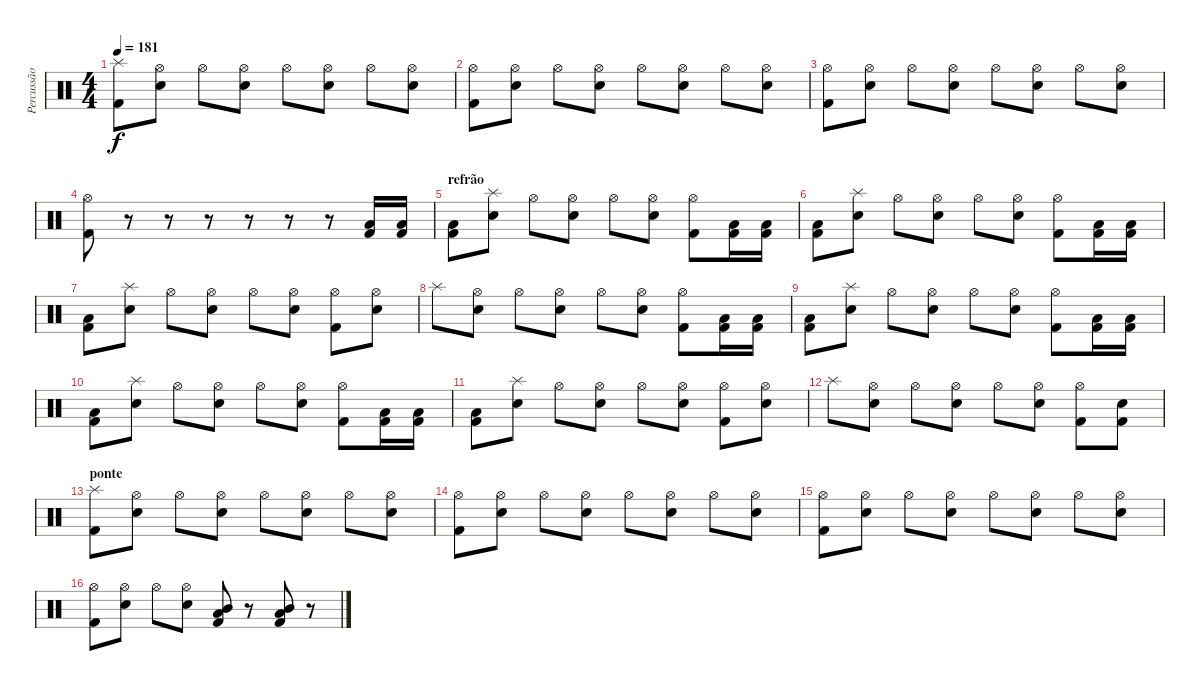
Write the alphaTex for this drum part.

\track ("Percussão" "Percussão") {instrument percussion}
\staff {score}
\articulation defaults
\ts (4 4)
\tempo 181
\clef neutral
\ks c
("Splash (hit)" "Kick (hit) 2").8{dy f} ("Hi-Hat (open)" "Snare (hit) 2").8 "Hi-Hat (open)".8 ("Hi-Hat (open)" "Snare (hit) 2").8 "Hi-Hat (open)".8 ("Hi-Hat (open)" "Snare (hit) 2").8 "Hi-Hat (open)".8 ("Hi-Hat (open)" "Snare (hit) 2").8 |
("Hi-Hat (open)" "Kick (hit) 2").8 ("Hi-Hat (open)" "Snare (hit) 2").8 "Hi-Hat (open)".8 ("Hi-Hat (open)" "Snare (hit) 2").8 "Hi-Hat (open)".8 ("Hi-Hat (open)" "Snare (hit) 2").8 "Hi-Hat (open)".8 ("Hi-Hat (open)" "Snare (hit) 2").8 |
("Hi-Hat (open)" "Kick (hit) 2").8 ("Hi-Hat (open)" "Snare (hit) 2").8 "Hi-Hat (open)".8 ("Hi-Hat (open)" "Snare (hit) 2").8 "Hi-Hat (open)".8 ("Hi-Hat (open)" "Snare (hit) 2").8 "Hi-Hat (open)".8 ("Hi-Hat (open)" "Snare (hit) 2").8 |
("Hi-Hat (open)" "Kick (hit) 2").8 r.8 r.8 r.8 r.8 r.8 r.8 ("Low Tom (hit)" "Kick (hit) 2").16 ("Low Tom (hit)" "Kick (hit) 2").16 |
\section ("" "refrão ")
("Low Tom (hit)" "Kick (hit) 2").8 ("Splash (hit)" "Snare (hit) 2").8 "Hi-Hat (open)".8 ("Hi-Hat (open)" "Snare (hit) 2").8 "Hi-Hat (open)".8 ("Hi-Hat (open)" "Snare (hit) 2").8 ("Hi-Hat (open)" "Kick (hit) 2").8 ("Low Tom (hit)" "Kick (hit) 2").16 ("Low Tom (hit)" "Kick (hit) 2").16 |
("Low Tom (hit)" "Kick (hit) 2").8 ("Splash (hit)" "Snare (hit) 2").8 "Hi-Hat (open)".8 ("Hi-Hat (open)" "Snare (hit) 2").8 "Hi-Hat (open)".8 ("Hi-Hat (open)" "Snare (hit) 2").8 ("Hi-Hat (open)" "Kick (hit) 2").8 ("Low Tom (hit)" "Kick (hit) 2").16 ("Low Tom (hit)" "Kick (hit) 2").16 |
("Low Tom (hit)" "Kick (hit) 2").8 ("Splash (hit)" "Snare (hit) 2").8 "Hi-Hat (open)".8 ("Hi-Hat (open)" "Snare (hit) 2").8 "Hi-Hat (open)".8 ("Hi-Hat (open)" "Snare (hit) 2").8 ("Hi-Hat (open)" "Kick (hit) 2").8 ("Hi-Hat (open)" "Snare (hit) 2").8 |
"Splash (hit)".8 ("Hi-Hat (open)" "Snare (hit) 2").8 "Hi-Hat (open)".8 ("Hi-Hat (open)" "Snare (hit) 2").8 "Hi-Hat (open)".8 ("Hi-Hat (open)" "Snare (hit) 2").8 ("Hi-Hat (open)" "Kick (hit) 2").8 ("Low Tom (hit)" "Kick (hit) 2").16 ("Low Tom (hit)" "Kick (hit) 2").16 |
("Low Tom (hit)" "Kick (hit) 2").8 ("Splash (hit)" "Snare (hit) 2").8 "Hi-Hat (open)".8 ("Hi-Hat (open)" "Snare (hit) 2").8 "Hi-Hat (open)".8 ("Hi-Hat (open)" "Snare (hit) 2").8 ("Hi-Hat (open)" "Kick (hit) 2").8 ("Low Tom (hit)" "Kick (hit) 2").16 ("Low Tom (hit)" "Kick (hit) 2").16 |
("Low Tom (hit)" "Kick (hit) 2").8 ("Splash (hit)" "Snare (hit) 2").8 "Hi-Hat (open)".8 ("Hi-Hat (open)" "Snare (hit) 2").8 "Hi-Hat (open)".8 ("Hi-Hat (open)" "Snare (hit) 2").8 ("Hi-Hat (open)" "Kick (hit) 2").8 ("Low Tom (hit)" "Kick (hit) 2").16 ("Low Tom (hit)" "Kick (hit) 2").16 |
("Low Tom (hit)" "Kick (hit) 2").8 ("Splash (hit)" "Snare (hit) 2").8 "Hi-Hat (open)".8 ("Hi-Hat (open)" "Snare (hit) 2").8 "Hi-Hat (open)".8 ("Hi-Hat (open)" "Snare (hit) 2").8 ("Hi-Hat (open)" "Kick (hit) 2").8 ("Hi-Hat (open)" "Snare (hit) 2").8 |
"Splash (hit)".8 ("Hi-Hat (open)" "Snare (hit) 2").8 "Hi-Hat (open)".8 ("Hi-Hat (open)" "Snare (hit) 2").8 "Hi-Hat (open)".8 ("Hi-Hat (open)" "Snare (hit) 2").8 ("Hi-Hat (open)" "Kick (hit) 2").8 ("Kick (hit) 2" "Snare (hit) 2").8 |
\section ("" "ponte")
("Splash (hit)" "Kick (hit) 2").8 ("Hi-Hat (open)" "Snare (hit) 2").8 "Hi-Hat (open)".8 ("Hi-Hat (open)" "Snare (hit) 2").8 "Hi-Hat (open)".8 ("Hi-Hat (open)" "Snare (hit) 2").8 "Hi-Hat (open)".8 ("Hi-Hat (open)" "Snare (hit) 2").8 |
("Hi-Hat (open)" "Kick (hit) 2").8 ("Hi-Hat (open)" "Snare (hit) 2").8 "Hi-Hat (open)".8 ("Hi-Hat (open)" "Snare (hit) 2").8 "Hi-Hat (open)".8 ("Hi-Hat (open)" "Snare (hit) 2").8 "Hi-Hat (open)".8 ("Hi-Hat (open)" "Snare (hit) 2").8 |
("Hi-Hat (open)" "Kick (hit) 2").8 ("Hi-Hat (open)" "Snare (hit) 2").8 "Hi-Hat (open)".8 ("Hi-Hat (open)" "Snare (hit) 2").8 "Hi-Hat (open)".8 ("Hi-Hat (open)" "Snare (hit) 2").8 "Hi-Hat (open)".8 ("Hi-Hat (open)" "Snare (hit) 2").8 |
("Hi-Hat (open)" "Kick (hit) 2").8 ("Hi-Hat (open)" "Snare (hit) 2").8 "Hi-Hat (open)".8 ("Hi-Hat (open)" "Snare (hit) 2").8 ("Mid Tom (hit)" "Low Tom (hit)" "Kick (hit) 2").8 r.8 ("Mid Tom (hit)" "Low Tom (hit)" "Kick (hit) 2").8 r.8
